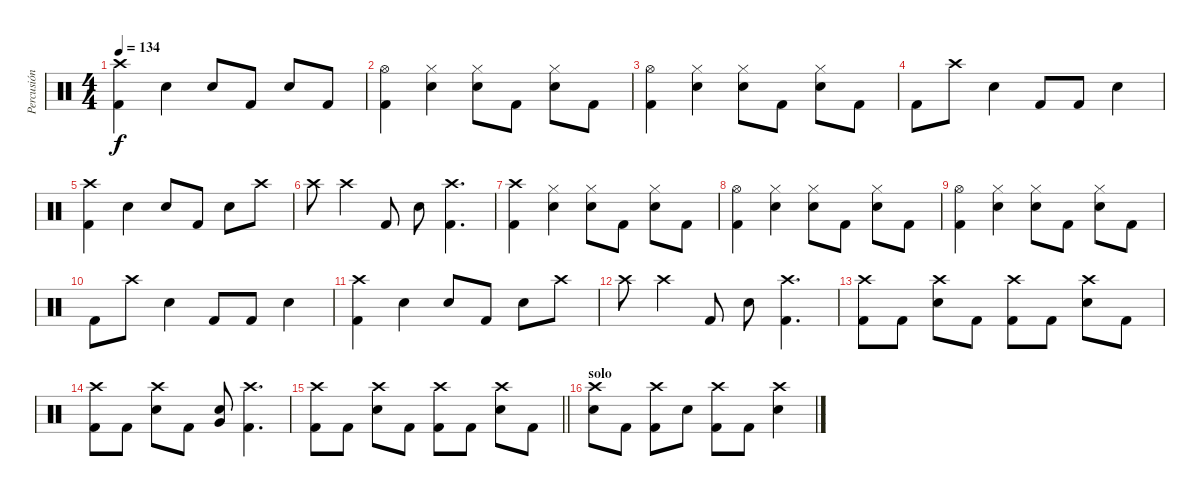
\track ("Percusión" "Percusión") {instrument percussion}
\staff {score}
\articulation defaults
\ts (4 4)
\tempo 134
\clef neutral
\ks c
("Crash high (hit)" "Kick (hit) 2").4{dy f} "Snare (hit) 2".4 "Snare (hit) 2".8 "Kick (hit) 2".8 "Snare (hit) 2".8 "Kick (hit) 2".8 |
("Hi-Hat (open)" "Kick (hit) 2").4 ("Hi-Hat (closed)" "Snare (hit) 2").4 ("Hi-Hat (closed)" "Snare (hit) 2").8 "Kick (hit) 2".8 ("Hi-Hat (closed)" "Snare (hit) 2").8 "Kick (hit) 2".8 |
("Hi-Hat (open)" "Kick (hit) 2").4 ("Hi-Hat (closed)" "Snare (hit) 2").4 ("Hi-Hat (closed)" "Snare (hit) 2").8 "Kick (hit) 2".8 ("Hi-Hat (closed)" "Snare (hit) 2").8 "Kick (hit) 2".8 |
"Kick (hit) 2".8 "Crash high (hit)".8 "Snare (hit) 2".4 "Kick (hit) 2".8 "Kick (hit) 2".8 "Snare (hit) 2".4 |
("Crash high (hit)" "Kick (hit) 2").4 "Snare (hit) 2".4 "Snare (hit) 2".8 "Kick (hit) 2".8 "Snare (hit) 2".8 "Crash high (hit)".8 |
"Crash high (hit)".8 "Crash high (hit)".4 "Kick (hit) 2".8 "Snare (hit) 2".8 ("Crash high (hit)" "Kick (hit) 2").4{d} |
("Crash high (hit)" "Kick (hit) 2").4 ("Hi-Hat (closed)" "Snare (hit) 2").4 ("Hi-Hat (closed)" "Snare (hit) 2").8 "Kick (hit) 2".8 ("Hi-Hat (closed)" "Snare (hit) 2").8 "Kick (hit) 2".8 |
("Hi-Hat (open)" "Kick (hit) 2").4 ("Hi-Hat (closed)" "Snare (hit) 2").4 ("Hi-Hat (closed)" "Snare (hit) 2").8 "Kick (hit) 2".8 ("Hi-Hat (closed)" "Snare (hit) 2").8 "Kick (hit) 2".8 |
("Hi-Hat (open)" "Kick (hit) 2").4 ("Hi-Hat (closed)" "Snare (hit) 2").4 ("Hi-Hat (closed)" "Snare (hit) 2").8 "Kick (hit) 2".8 ("Hi-Hat (closed)" "Snare (hit) 2").8 "Kick (hit) 2".8 |
"Kick (hit) 2".8 "Crash high (hit)".8 "Snare (hit) 2".4 "Kick (hit) 2".8 "Kick (hit) 2".8 "Snare (hit) 2".4 |
("Crash high (hit)" "Kick (hit) 2").4 "Snare (hit) 2".4 "Snare (hit) 2".8 "Kick (hit) 2".8 "Snare (hit) 2".8 "Crash high (hit)".8 |
"Crash high (hit)".8 "Crash high (hit)".4 "Kick (hit) 2".8 "Snare (hit) 2".8 ("Crash high (hit)" "Kick (hit) 2").4{d} |
("Crash high (hit)" "Kick (hit) 2").8 "Kick (hit) 2".8 ("Crash high (hit)" "Snare (hit) 2").8 "Kick (hit) 2".8 ("Crash high (hit)" "Kick (hit) 2").8 "Kick (hit) 2".8 ("Crash high (hit)" "Snare (hit) 2").8 "Kick (hit) 2".8 |
("Crash high (hit)" "Kick (hit) 2").8 "Kick (hit) 2".8 ("Crash high (hit)" "Snare (hit) 2").8 "Kick (hit) 2".8 ("Snare (hit) 2" "Very Low Tom (hit)").8 ("Crash high (hit)" "Kick (hit) 2").4{d} |
\barLineRight lightlight
("Crash high (hit)" "Kick (hit) 2").8 "Kick (hit) 2".8 ("Crash high (hit)" "Snare (hit) 2").8 "Kick (hit) 2".8 ("Crash high (hit)" "Kick (hit) 2").8 "Kick (hit) 2".8 ("Crash high (hit)" "Snare (hit) 2").8 "Kick (hit) 2".8 |
\section ("" "solo")
("Crash high (hit)" "Snare (hit) 2").8 "Kick (hit) 2".8 ("Crash high (hit)" "Kick (hit) 2").8 "Snare (hit) 2".8 ("Crash high (hit)" "Kick (hit) 2").8 "Kick (hit) 2".8 ("Crash high (hit)" "Snare (hit) 2").4
